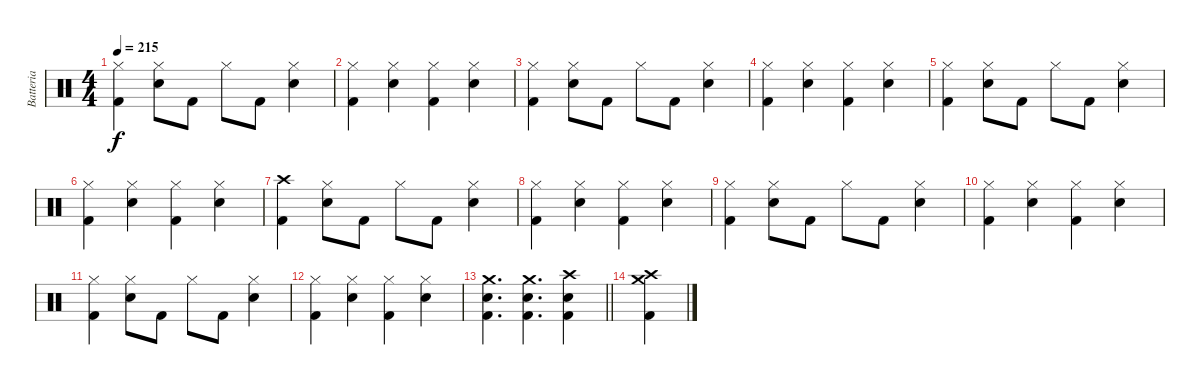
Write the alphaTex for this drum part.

\track ("Batteria" "Batteria") {instrument percussion}
\staff {score}
\articulation defaults
\ts (4 4)
\tempo 215
\clef neutral
\ks c
("Hi-Hat (closed)" "Kick (hit) 2").4{dy f} ("Hi-Hat (closed)" "Electric Snare (hit)").8 "Kick (hit) 2".8 "Hi-Hat (closed)".8 "Kick (hit) 2".8 ("Hi-Hat (closed)" "Electric Snare (hit)").4 |
("Hi-Hat (closed)" "Kick (hit) 2").4 ("Hi-Hat (closed)" "Electric Snare (hit)").4 ("Hi-Hat (closed)" "Kick (hit) 2").4 ("Hi-Hat (closed)" "Electric Snare (hit)").4 |
("Hi-Hat (closed)" "Kick (hit) 2").4 ("Hi-Hat (closed)" "Electric Snare (hit)").8 "Kick (hit) 2".8 "Hi-Hat (closed)".8 "Kick (hit) 2".8 ("Hi-Hat (closed)" "Electric Snare (hit)").4 |
("Hi-Hat (closed)" "Kick (hit) 2").4 ("Hi-Hat (closed)" "Electric Snare (hit)").4 ("Hi-Hat (closed)" "Kick (hit) 2").4 ("Hi-Hat (closed)" "Electric Snare (hit)").4 |
("Hi-Hat (closed)" "Kick (hit) 2").4 ("Hi-Hat (closed)" "Electric Snare (hit)").8 "Kick (hit) 2".8 "Hi-Hat (closed)".8 "Kick (hit) 2".8 ("Hi-Hat (closed)" "Electric Snare (hit)").4 |
("Hi-Hat (closed)" "Kick (hit) 2").4 ("Hi-Hat (closed)" "Electric Snare (hit)").4 ("Hi-Hat (closed)" "Kick (hit) 2").4 ("Hi-Hat (closed)" "Electric Snare (hit)").4 |
("Crash high (hit)" "Kick (hit) 2").4 ("Hi-Hat (closed)" "Electric Snare (hit)").8 "Kick (hit) 2".8 "Hi-Hat (closed)".8 "Kick (hit) 2".8 ("Hi-Hat (closed)" "Electric Snare (hit)").4 |
("Hi-Hat (closed)" "Kick (hit) 2").4 ("Hi-Hat (closed)" "Electric Snare (hit)").4 ("Hi-Hat (closed)" "Kick (hit) 2").4 ("Hi-Hat (closed)" "Electric Snare (hit)").4 |
("Hi-Hat (closed)" "Kick (hit) 2").4 ("Hi-Hat (closed)" "Electric Snare (hit)").8 "Kick (hit) 2".8 "Hi-Hat (closed)".8 "Kick (hit) 2".8 ("Hi-Hat (closed)" "Electric Snare (hit)").4 |
("Hi-Hat (closed)" "Kick (hit) 2").4 ("Hi-Hat (closed)" "Electric Snare (hit)").4 ("Hi-Hat (closed)" "Kick (hit) 2").4 ("Hi-Hat (closed)" "Electric Snare (hit)").4 |
("Hi-Hat (closed)" "Kick (hit) 2").4 ("Hi-Hat (closed)" "Electric Snare (hit)").8 "Kick (hit) 2".8 "Hi-Hat (closed)".8 "Kick (hit) 2".8 ("Hi-Hat (closed)" "Electric Snare (hit)").4 |
("Hi-Hat (closed)" "Kick (hit) 2").4 ("Hi-Hat (closed)" "Electric Snare (hit)").4 ("Hi-Hat (closed)" "Kick (hit) 2").4 ("Hi-Hat (closed)" "Electric Snare (hit)").4 |
\barLineRight lightlight
("Crash medium (hit)" "Electric Snare (hit)" "Kick (hit) 2").4{d} ("Crash medium (hit)" "Electric Snare (hit)" "Kick (hit) 2").4{d} ("Crash high (hit)" "Electric Snare (hit)" "Kick (hit) 2").4 |
("Crash medium (hit)" "Crash high (hit)" "Kick (hit) 2").4
